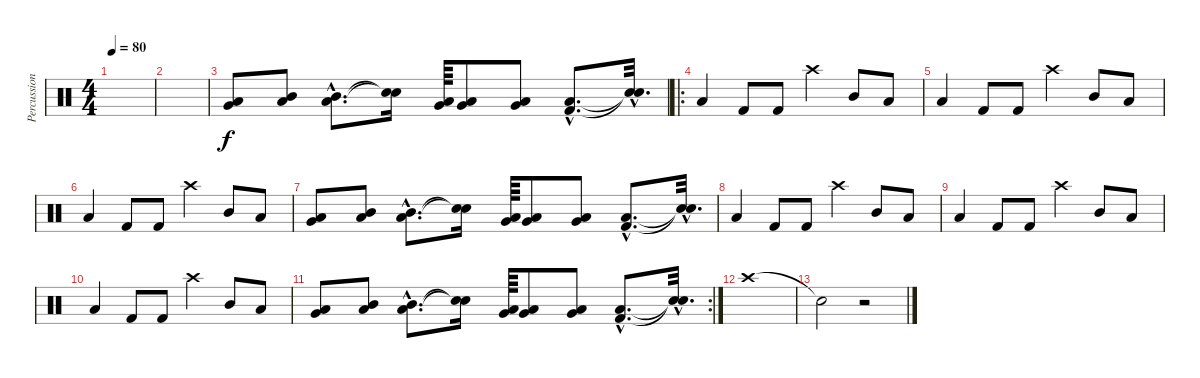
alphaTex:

\track ("Percussions" "Percussion") {instrument percussion}
\staff {score}
\articulation defaults
\ts (4 4)
\tempo 80
\clef neutral
\ks c
|
|
("Low Tom (hit)" "Very Low Tom (hit)").8 ("Low Tom (hit)" "Mid Tom (hit)").8 ("Low Tom (hit)"{hac} "Mid Tom (hit)"{hac}).8{d} ("Snare (hit)"{t} "Snare (hit)"{t}).16 ("Very Low Tom (hit)" "Low Tom (hit)").64 ("Very Low Tom (hit)" "Low Tom (hit)").8 ("Low Floor Tom (hit)" "Very Low Tom (hit)").8 ("Kick (hit) 2"{hac} "Low Floor Tom (hit)"{hac}).8{d} ("Snare (hit)"{hac t} "Snare (hit)"{hac t}).32{d} |
\ro "Low Tom (hit)".4 "Kick (hit) 2".8 "Kick (hit) 2".8 "Crash high (hit)".4 "Mid Tom (hit)".8 "Low Tom (hit)".8
|
"Low Tom (hit)".4 "Kick (hit) 2".8 "Kick (hit) 2".8 "Crash high (hit)".4 "Mid Tom (hit)".8 "Low Tom (hit)".8 |
"Low Tom (hit)".4 "Kick (hit) 2".8 "Kick (hit) 2".8 "Crash high (hit)".4 "Mid Tom (hit)".8 "Low Tom (hit)".8 |
("Low Tom (hit)" "Very Low Tom (hit)").8 ("Low Tom (hit)" "Mid Tom (hit)").8 ("Low Tom (hit)"{hac} "Mid Tom (hit)"{hac}).8{d} ("Snare (hit)"{t} "Snare (hit)"{t}).16 ("Very Low Tom (hit)" "Low Tom (hit)").64 ("Very Low Tom (hit)" "Low Tom (hit)").8 ("Low Floor Tom (hit)" "Very Low Tom (hit)").8 ("Kick (hit) 2"{hac} "Low Floor Tom (hit)"{hac}).8{d} ("Snare (hit)"{hac t} "Snare (hit)"{hac t}).32{d} |
"Low Tom (hit)".4 "Kick (hit) 2".8 "Kick (hit) 2".8 "Crash high (hit)".4 "Mid Tom (hit)".8 "Low Tom (hit)".8 |
"Low Tom (hit)".4 "Kick (hit) 2".8 "Kick (hit) 2".8 "Crash high (hit)".4 "Mid Tom (hit)".8 "Low Tom (hit)".8 |
"Low Tom (hit)".4 "Kick (hit) 2".8 "Kick (hit) 2".8 "Crash high (hit)".4 "Mid Tom (hit)".8 "Low Tom (hit)".8 |
\rc 2
("Low Tom (hit)" "Very Low Tom (hit)").8 ("Low Tom (hit)" "Mid Tom (hit)").8 ("Low Tom (hit)"{hac} "Mid Tom (hit)"{hac}).8{d} ("Snare (hit)"{t} "Snare (hit)"{t}).16 ("Very Low Tom (hit)" "Low Tom (hit)").64 ("Very Low Tom (hit)" "Low Tom (hit)").8 ("Low Floor Tom (hit)" "Very Low Tom (hit)").8 ("Kick (hit) 2"{hac} "Low Floor Tom (hit)"{hac}).8{d} ("Snare (hit)"{hac t} "Snare (hit)"{hac t}).32{d} |
"Crash high (hit)".1 |
"Snare (hit)"{t}.2 r.2
